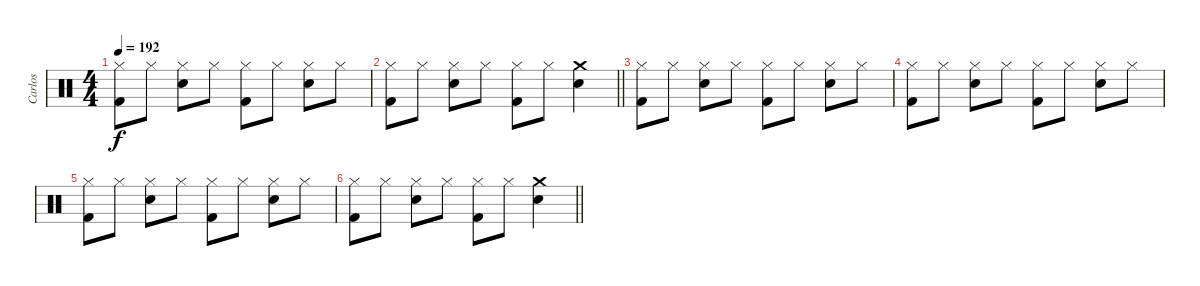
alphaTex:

\track ("Carlos" "Carlos") {instrument percussion}
\staff {score}
\articulation defaults
\ts (4 4)
\tempo 192
\clef neutral
\ks c
("Hi-Hat (closed)" "Kick (hit) 2").8{dy f} "Hi-Hat (closed)".8 ("Hi-Hat (closed)" "Snare (hit) 2").8 "Hi-Hat (closed)".8 ("Hi-Hat (closed)" "Kick (hit) 2").8 "Hi-Hat (closed)".8 ("Hi-Hat (closed)" "Snare (hit) 2").8 "Hi-Hat (closed)".8 |
\barLineRight lightlight
("Hi-Hat (closed)" "Kick (hit) 2").8 "Hi-Hat (closed)".8 ("Hi-Hat (closed)" "Snare (hit) 2").8 "Hi-Hat (closed)".8 ("Hi-Hat (closed)" "Kick (hit) 2").8 "Hi-Hat (closed)".8 ("Crash medium (hit)" "Snare (hit) 2").4 |
("Hi-Hat (closed)" "Kick (hit) 2").8 "Hi-Hat (closed)".8 ("Hi-Hat (closed)" "Snare (hit) 2").8 "Hi-Hat (closed)".8 ("Hi-Hat (closed)" "Kick (hit) 2").8 "Hi-Hat (closed)".8 ("Hi-Hat (closed)" "Snare (hit) 2").8 "Hi-Hat (closed)".8 |
("Hi-Hat (closed)" "Kick (hit) 2").8 "Hi-Hat (closed)".8 ("Hi-Hat (closed)" "Snare (hit) 2").8 "Hi-Hat (closed)".8 ("Hi-Hat (closed)" "Kick (hit) 2").8 "Hi-Hat (closed)".8 ("Hi-Hat (closed)" "Snare (hit) 2").8 "Hi-Hat (closed)".8 |
("Hi-Hat (closed)" "Kick (hit) 2").8 "Hi-Hat (closed)".8 ("Hi-Hat (closed)" "Snare (hit) 2").8 "Hi-Hat (closed)".8 ("Hi-Hat (closed)" "Kick (hit) 2").8 "Hi-Hat (closed)".8 ("Hi-Hat (closed)" "Snare (hit) 2").8 "Hi-Hat (closed)".8 |
\barLineRight lightlight
("Hi-Hat (closed)" "Kick (hit) 2").8 "Hi-Hat (closed)".8 ("Hi-Hat (closed)" "Snare (hit) 2").8 "Hi-Hat (closed)".8 ("Hi-Hat (closed)" "Kick (hit) 2").8 "Hi-Hat (closed)".8 ("Crash medium (hit)" "Snare (hit) 2").4
